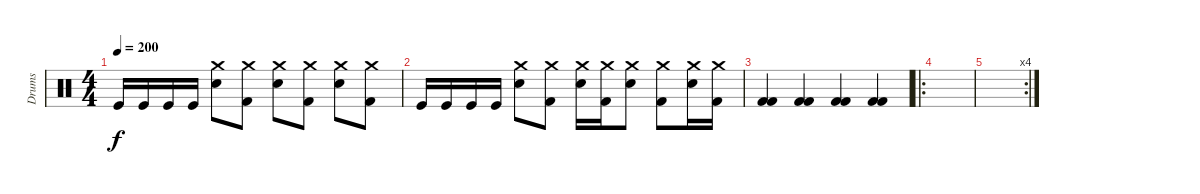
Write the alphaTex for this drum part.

\track ("Drums" "Drums") {instrument percussion}
\staff {score}
\articulation defaults
\ts (4 4)
\tempo 200
\clef neutral
\ks c "Kick (hit)".16{dy f} "Kick (hit)".16 "Kick (hit)".16 "Kick (hit)".16
("Electric Snare (hit)" "Crash medium (hit)").8 ("Kick (hit) 2" "Crash medium (hit)").8 ("Electric Snare (hit)" "Crash medium (hit)").8 ("Kick (hit) 2" "Crash medium (hit)").8 ("Electric Snare (hit)" "Crash medium (hit)").8 ("Kick (hit) 2" "Crash medium (hit)").8 |
"Kick (hit)".16 "Kick (hit)".16 "Kick (hit)".16 "Kick (hit)".16 ("Electric Snare (hit)" "Crash medium (hit)").8 ("Kick (hit) 2" "Crash medium (hit)").8 ("Electric Snare (hit)" "Crash medium (hit)").16 ("Kick (hit) 2" "Crash medium (hit)").16 ("Electric Snare (hit)" "Crash medium (hit)").8 ("Kick (hit) 2" "Crash medium (hit)").8 ("Electric Snare (hit)" "Crash medium (hit)").16 ("Kick (hit) 2" "Crash medium (hit)").16 |
("Kick (hit) 2" "Kick (hit) 2").4 ("Kick (hit) 2" "Kick (hit) 2").4 ("Kick (hit) 2" "Kick (hit) 2").4 ("Kick (hit) 2" "Kick (hit) 2").4 |
\ro
|
\rc 4
